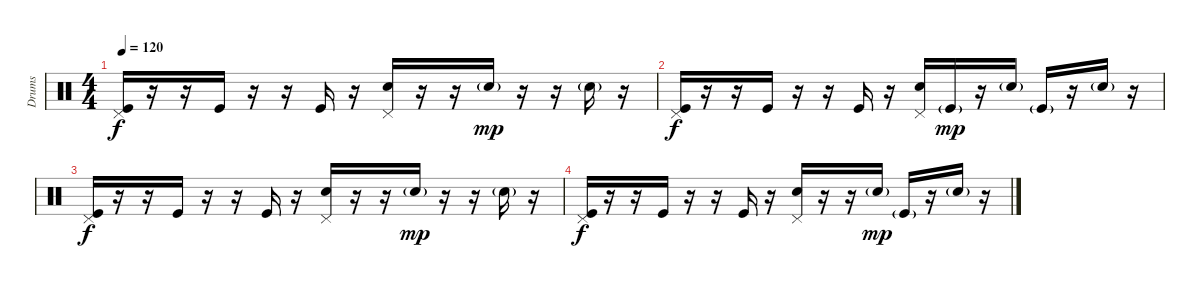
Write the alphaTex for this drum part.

\track ("Drums" "Drums") {instrument percussion}
\staff {score}
\articulation defaults
\ts (4 4)
\tempo 120
\clef neutral
\ks c
("Pedal Hi-Hat (hit)" "Kick (hit)").16{dy f} r.16 r.16 "Kick (hit)".16 r.16 r.16 "Kick (hit)".16 r.16 ("Pedal Hi-Hat (hit)" "Electric Snare (hit)").16 r.16 r.16 "Electric Snare (hit)"{g}.16{dy mp} r.16 r.16 "Electric Snare (hit)"{g}.16 r.16 |
("Pedal Hi-Hat (hit)" "Kick (hit)").16{dy f} r.16 r.16 "Kick (hit)".16 r.16 r.16 "Kick (hit)".16 r.16 ("Pedal Hi-Hat (hit)" "Electric Snare (hit)").16 "Kick (hit)"{g}.16{dy mp} r.16 "Electric Snare (hit)"{g}.16 "Kick (hit)"{g}.16 r.16 "Electric Snare (hit)"{g}.16 r.16 |
("Pedal Hi-Hat (hit)" "Kick (hit)").16{dy f} r.16 r.16 "Kick (hit)".16 r.16 r.16 "Kick (hit)".16 r.16 ("Pedal Hi-Hat (hit)" "Electric Snare (hit)").16 r.16 r.16 "Electric Snare (hit)"{g}.16{dy mp} r.16 r.16 "Electric Snare (hit)"{g}.16 r.16 |
("Pedal Hi-Hat (hit)" "Kick (hit)").16{dy f} r.16 r.16 "Kick (hit)".16 r.16 r.16 "Kick (hit)".16 r.16 ("Pedal Hi-Hat (hit)" "Electric Snare (hit)").16 r.16 r.16 "Electric Snare (hit)"{g}.16{dy mp} "Kick (hit)"{g}.16 r.16 "Electric Snare (hit)"{g}.16 r.16
